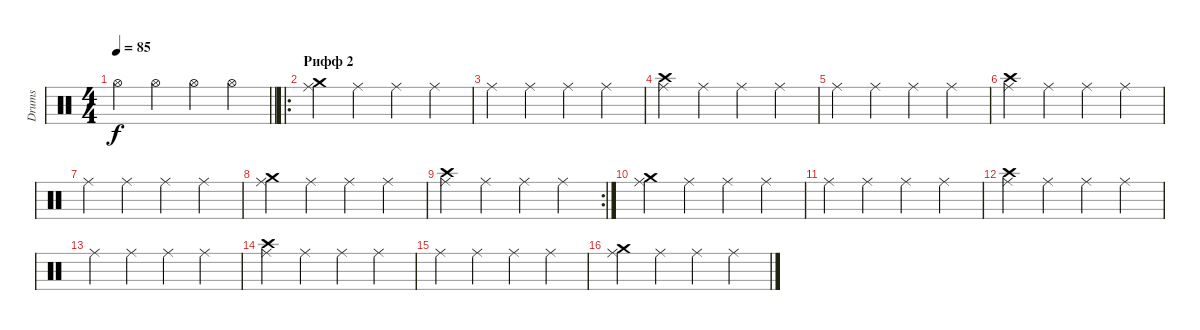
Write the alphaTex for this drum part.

\track ("Drums" "Drums") {instrument percussion}
\staff {score}
\articulation defaults
\ts (4 4)
\tempo 85
\clef neutral
\barLineRight lightlight
\ks c "Hi-Hat (open)".4{dy f} "Hi-Hat (open)".4 "Hi-Hat (open)".4 "Hi-Hat (open)".4
|
\ro
\section ("" "Рифф 2")
("Ride (middle)" "Crash medium (hit)").4 "Ride (middle)".4 "Ride (middle)".4 "Ride (middle)".4 |
"Ride (middle)".4 "Ride (middle)".4 "Ride (middle)".4 "Ride (middle)".4 |
("Ride (middle)" "Crash high (hit)").4 "Ride (middle)".4 "Ride (middle)".4 "Ride (middle)".4 |
"Ride (middle)".4 "Ride (middle)".4 "Ride (middle)".4 "Ride (middle)".4 |
("Ride (middle)" "Crash high (hit)").4 "Ride (middle)".4 "Ride (middle)".4 "Ride (middle)".4 |
"Ride (middle)".4 "Ride (middle)".4 "Ride (middle)".4 "Ride (middle)".4 |
("Ride (middle)" "Crash medium (hit)").4 "Ride (middle)".4 "Ride (middle)".4 "Ride (middle)".4 |
\rc 2
("Ride (middle)" "Crash high (hit)").4 "Ride (middle)".4 "Ride (middle)".4 "Ride (middle)".4 |
("Ride (middle)" "Crash medium (hit)").4 "Ride (middle)".4 "Ride (middle)".4 "Ride (middle)".4 |
"Ride (middle)".4 "Ride (middle)".4 "Ride (middle)".4 "Ride (middle)".4 |
("Ride (middle)" "Crash high (hit)").4 "Ride (middle)".4 "Ride (middle)".4 "Ride (middle)".4 |
"Ride (middle)".4 "Ride (middle)".4 "Ride (middle)".4 "Ride (middle)".4 |
("Ride (middle)" "Crash high (hit)").4 "Ride (middle)".4 "Ride (middle)".4 "Ride (middle)".4 |
"Ride (middle)".4 "Ride (middle)".4 "Ride (middle)".4 "Ride (middle)".4 |
("Ride (middle)" "Crash medium (hit)").4 "Ride (middle)".4 "Ride (middle)".4 "Ride (middle)".4
